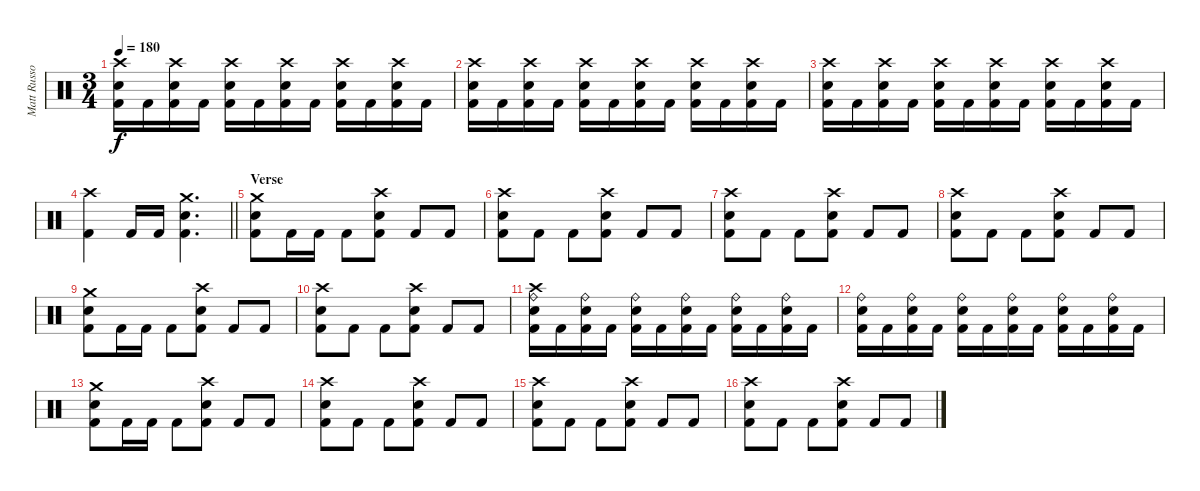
\track ("Matt Russo" "Matt Russo") {instrument percussion}
\staff {score}
\articulation defaults
\ts (3 4)
\tempo 180
\clef neutral
\ks c
("Crash high (hit)" "Electric Snare (hit)" "Kick (hit) 2").16{dy f} "Kick (hit) 2".16 ("Crash high (hit)" "Electric Snare (hit)" "Kick (hit) 2").16 "Kick (hit) 2".16 ("Crash high (hit)" "Electric Snare (hit)" "Kick (hit) 2").16 "Kick (hit) 2".16 ("Crash high (hit)" "Electric Snare (hit)" "Kick (hit) 2").16 "Kick (hit) 2".16 ("Crash high (hit)" "Electric Snare (hit)" "Kick (hit) 2").16 "Kick (hit) 2".16 ("Crash high (hit)" "Electric Snare (hit)" "Kick (hit) 2").16 "Kick (hit) 2".16 |
("Crash high (hit)" "Electric Snare (hit)" "Kick (hit) 2").16 "Kick (hit) 2".16 ("Crash high (hit)" "Electric Snare (hit)" "Kick (hit) 2").16 "Kick (hit) 2".16 ("Crash high (hit)" "Electric Snare (hit)" "Kick (hit) 2").16 "Kick (hit) 2".16 ("Crash high (hit)" "Electric Snare (hit)" "Kick (hit) 2").16 "Kick (hit) 2".16 ("Crash high (hit)" "Electric Snare (hit)" "Kick (hit) 2").16 "Kick (hit) 2".16 ("Crash high (hit)" "Electric Snare (hit)" "Kick (hit) 2").16 "Kick (hit) 2".16 |
("Crash high (hit)" "Electric Snare (hit)" "Kick (hit) 2").16 "Kick (hit) 2".16 ("Crash high (hit)" "Electric Snare (hit)" "Kick (hit) 2").16 "Kick (hit) 2".16 ("Crash high (hit)" "Electric Snare (hit)" "Kick (hit) 2").16 "Kick (hit) 2".16 ("Crash high (hit)" "Electric Snare (hit)" "Kick (hit) 2").16 "Kick (hit) 2".16 ("Crash high (hit)" "Electric Snare (hit)" "Kick (hit) 2").16 "Kick (hit) 2".16 ("Crash high (hit)" "Electric Snare (hit)" "Kick (hit) 2").16 "Kick (hit) 2".16 |
\barLineRight lightlight
("Crash high (hit)" "Kick (hit) 2").4 "Kick (hit) 2".16 "Kick (hit) 2".16 ("Crash medium (hit)" "Electric Snare (hit)" "Kick (hit) 2").4{d} |
\section ("" "Verse")
("Crash medium (hit)" "Electric Snare (hit)" "Kick (hit) 2").8 "Kick (hit) 2".16 "Kick (hit) 2".16 "Kick (hit) 2".8 ("Crash high (hit)" "Electric Snare (hit)" "Kick (hit) 2").8 "Kick (hit) 2".8 "Kick (hit) 2".8 |
("Crash high (hit)" "Electric Snare (hit)" "Kick (hit) 2").8 "Kick (hit) 2".8 "Kick (hit) 2".8 ("Crash high (hit)" "Electric Snare (hit)" "Kick (hit) 2").8 "Kick (hit) 2".8 "Kick (hit) 2".8 |
("Crash high (hit)" "Electric Snare (hit)" "Kick (hit) 2").8 "Kick (hit) 2".8 "Kick (hit) 2".8 ("Crash high (hit)" "Electric Snare (hit)" "Kick (hit) 2").8 "Kick (hit) 2".8 "Kick (hit) 2".8 |
("Crash high (hit)" "Electric Snare (hit)" "Kick (hit) 2").8 "Kick (hit) 2".8 "Kick (hit) 2".8 ("Crash high (hit)" "Electric Snare (hit)" "Kick (hit) 2").8 "Kick (hit) 2".8 "Kick (hit) 2".8 |
("Crash medium (hit)" "Electric Snare (hit)" "Kick (hit) 2").8 "Kick (hit) 2".16 "Kick (hit) 2".16 "Kick (hit) 2".8 ("Crash high (hit)" "Electric Snare (hit)" "Kick (hit) 2").8 "Kick (hit) 2".8 "Kick (hit) 2".8 |
("Crash high (hit)" "Electric Snare (hit)" "Kick (hit) 2").8 "Kick (hit) 2".8 "Kick (hit) 2".8 ("Crash high (hit)" "Electric Snare (hit)" "Kick (hit) 2").8 "Kick (hit) 2".8 "Kick (hit) 2".8 |
("Crash high (hit)" "Ride (bell)" "Electric Snare (hit)" "Kick (hit) 2").16 "Kick (hit) 2".16 ("Ride (bell)" "Electric Snare (hit)" "Kick (hit) 2").16 "Kick (hit) 2".16 ("Ride (bell)" "Electric Snare (hit)" "Kick (hit) 2").16 "Kick (hit) 2".16 ("Ride (bell)" "Electric Snare (hit)" "Kick (hit) 2").16 "Kick (hit) 2".16 ("Ride (bell)" "Electric Snare (hit)" "Kick (hit) 2").16 "Kick (hit) 2".16 ("Ride (bell)" "Electric Snare (hit)" "Kick (hit) 2").16 "Kick (hit) 2".16 |
("Ride (bell)" "Electric Snare (hit)" "Kick (hit) 2").16 "Kick (hit) 2".16 ("Ride (bell)" "Electric Snare (hit)" "Kick (hit) 2").16 "Kick (hit) 2".16 ("Ride (bell)" "Electric Snare (hit)" "Kick (hit) 2").16 "Kick (hit) 2".16 ("Ride (bell)" "Electric Snare (hit)" "Kick (hit) 2").16 "Kick (hit) 2".16 ("Ride (bell)" "Electric Snare (hit)" "Kick (hit) 2").16 "Kick (hit) 2".16 ("Ride (bell)" "Electric Snare (hit)" "Kick (hit) 2").16 "Kick (hit) 2".16 |
("Crash medium (hit)" "Electric Snare (hit)" "Kick (hit) 2").8 "Kick (hit) 2".16 "Kick (hit) 2".16 "Kick (hit) 2".8 ("Crash high (hit)" "Electric Snare (hit)" "Kick (hit) 2").8 "Kick (hit) 2".8 "Kick (hit) 2".8 |
("Crash high (hit)" "Electric Snare (hit)" "Kick (hit) 2").8 "Kick (hit) 2".8 "Kick (hit) 2".8 ("Crash high (hit)" "Electric Snare (hit)" "Kick (hit) 2").8 "Kick (hit) 2".8 "Kick (hit) 2".8 |
("Crash high (hit)" "Electric Snare (hit)" "Kick (hit) 2").8 "Kick (hit) 2".8 "Kick (hit) 2".8 ("Crash high (hit)" "Electric Snare (hit)" "Kick (hit) 2").8 "Kick (hit) 2".8 "Kick (hit) 2".8 |
("Crash high (hit)" "Electric Snare (hit)" "Kick (hit) 2").8 "Kick (hit) 2".8 "Kick (hit) 2".8 ("Crash high (hit)" "Electric Snare (hit)" "Kick (hit) 2").8 "Kick (hit) 2".8 "Kick (hit) 2".8
